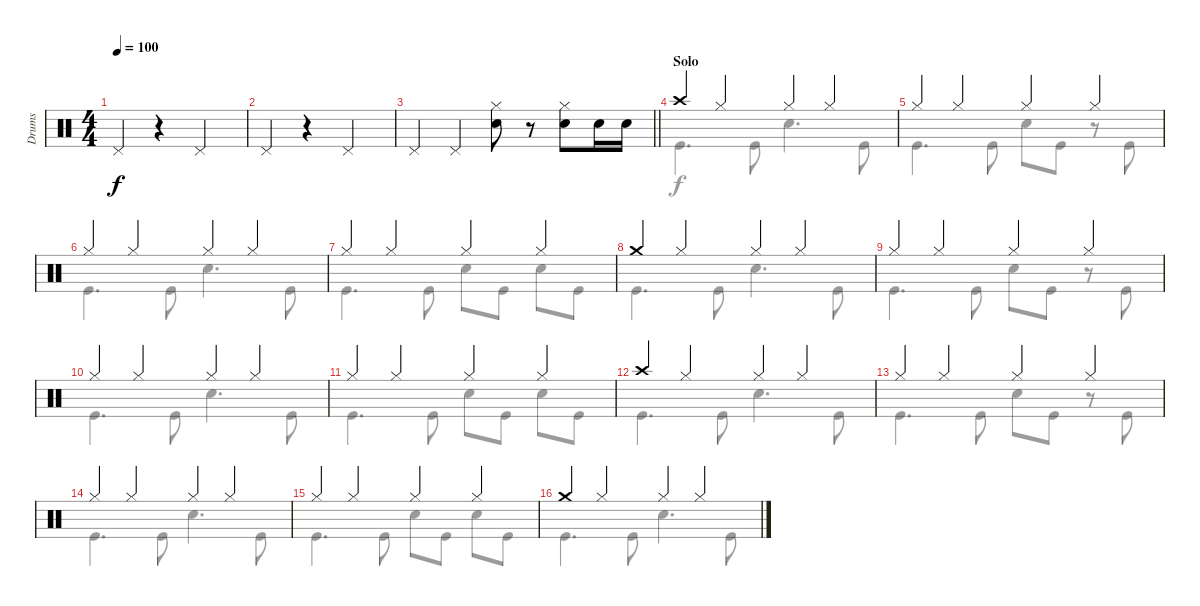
\track ("Drums" "Drums") {instrument percussion}
\staff {score}
\articulation defaults
\voice
\ts (4 4)
\tempo 100
\clef neutral
\ks c "Pedal Hi-Hat (hit)".4{dy f}
r.4 "Pedal Hi-Hat (hit)".2 |
"Pedal Hi-Hat (hit)".4 r.4 "Pedal Hi-Hat (hit)".2 |
\barLineRight lightlight "Pedal Hi-Hat (hit)".4 "Pedal Hi-Hat (hit)".4
("Hi-Hat (closed)" "Snare (hit) 2").8 r.8 ("Hi-Hat (closed)" "Snare (hit) 2").8 "Snare (hit) 2".16 "Snare (hit) 2".16 |
\section ("" "Solo")
"Crash high (hit)".4 "Hi-Hat (closed)".4 "Hi-Hat (closed)".4 "Hi-Hat (closed)".4 |
"Hi-Hat (closed)".4 "Hi-Hat (closed)".4 "Hi-Hat (closed)".4 "Hi-Hat (closed)".4 |
"Hi-Hat (closed)".4 "Hi-Hat (closed)".4 "Hi-Hat (closed)".4 "Hi-Hat (closed)".4 |
"Hi-Hat (closed)".4 "Hi-Hat (closed)".4 "Hi-Hat (closed)".4 "Hi-Hat (closed)".4 |
"Crash medium (hit)".4 "Hi-Hat (closed)".4 "Hi-Hat (closed)".4 "Hi-Hat (closed)".4 |
"Hi-Hat (closed)".4 "Hi-Hat (closed)".4 "Hi-Hat (closed)".4 "Hi-Hat (closed)".4 |
"Hi-Hat (closed)".4 "Hi-Hat (closed)".4 "Hi-Hat (closed)".4 "Hi-Hat (closed)".4 |
"Hi-Hat (closed)".4 "Hi-Hat (closed)".4 "Hi-Hat (closed)".4 "Hi-Hat (closed)".4 |
"Crash high (hit)".4 "Hi-Hat (closed)".4 "Hi-Hat (closed)".4 "Hi-Hat (closed)".4 |
"Hi-Hat (closed)".4 "Hi-Hat (closed)".4 "Hi-Hat (closed)".4 "Hi-Hat (closed)".4 |
"Hi-Hat (closed)".4 "Hi-Hat (closed)".4 "Hi-Hat (closed)".4 "Hi-Hat (closed)".4 |
"Hi-Hat (closed)".4 "Hi-Hat (closed)".4 "Hi-Hat (closed)".4 "Hi-Hat (closed)".4 |
"Crash medium (hit)".4 "Hi-Hat (closed)".4 "Hi-Hat (closed)".4 "Hi-Hat (closed)".4
\voice
\clef neutral
\ottava regular
\simile none
\ks c
|
|
\barLineRight lightlight
|
"Kick (hit)".4{d} "Kick (hit)".8 "Snare (hit) 2".4{d} "Kick (hit)".8 |
"Kick (hit)".4{d} "Kick (hit)".8 "Snare (hit) 2".8 "Kick (hit)".8 r.8 "Kick (hit)".8 |
"Kick (hit)".4{d} "Kick (hit)".8 "Snare (hit) 2".4{d} "Kick (hit)".8 |
"Kick (hit)".4{d} "Kick (hit)".8 "Snare (hit) 2".8 "Kick (hit)".8 "Snare (hit) 2".8 "Kick (hit)".8 |
"Kick (hit)".4{d} "Kick (hit)".8 "Snare (hit) 2".4{d} "Kick (hit)".8 |
"Kick (hit)".4{d} "Kick (hit)".8 "Snare (hit) 2".8 "Kick (hit)".8 r.8 "Kick (hit)".8 |
"Kick (hit)".4{d} "Kick (hit)".8 "Snare (hit) 2".4{d} "Kick (hit)".8 |
"Kick (hit)".4{d} "Kick (hit)".8 "Snare (hit) 2".8 "Kick (hit)".8 "Snare (hit) 2".8 "Kick (hit)".8 |
"Kick (hit)".4{d} "Kick (hit)".8 "Snare (hit) 2".4{d} "Kick (hit)".8 |
"Kick (hit)".4{d} "Kick (hit)".8 "Snare (hit) 2".8 "Kick (hit)".8 r.8 "Kick (hit)".8 |
"Kick (hit)".4{d} "Kick (hit)".8 "Snare (hit) 2".4{d} "Kick (hit)".8 |
"Kick (hit)".4{d} "Kick (hit)".8 "Snare (hit) 2".8 "Kick (hit)".8 "Snare (hit) 2".8 "Kick (hit)".8 |
"Kick (hit)".4{d} "Kick (hit)".8 "Snare (hit) 2".4{d} "Kick (hit)".8
